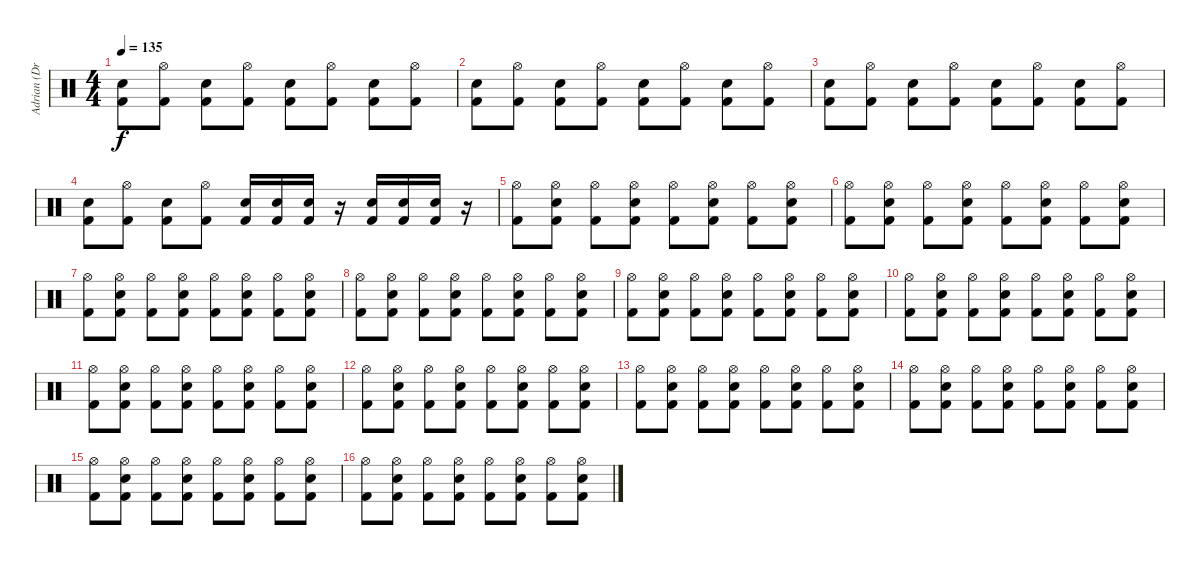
\track ("Adrian (Drums)" "Adrian (Dr") {instrument percussion}
\staff {score}
\articulation defaults
\ts (4 4)
\tempo 135
\clef neutral
\ks c
("Snare (hit) 2" "Kick (hit) 2").8{dy f} ("Hi-Hat (open)" "Kick (hit) 2").8 ("Snare (hit) 2" "Kick (hit) 2").8 ("Hi-Hat (open)" "Kick (hit) 2").8 ("Snare (hit) 2" "Kick (hit) 2").8 ("Hi-Hat (open)" "Kick (hit) 2").8 ("Snare (hit) 2" "Kick (hit) 2").8 ("Hi-Hat (open)" "Kick (hit) 2").8 |
("Snare (hit) 2" "Kick (hit) 2").8 ("Hi-Hat (open)" "Kick (hit) 2").8 ("Snare (hit) 2" "Kick (hit) 2").8 ("Hi-Hat (open)" "Kick (hit) 2").8 ("Snare (hit) 2" "Kick (hit) 2").8 ("Hi-Hat (open)" "Kick (hit) 2").8 ("Snare (hit) 2" "Kick (hit) 2").8 ("Hi-Hat (open)" "Kick (hit) 2").8 |
("Snare (hit) 2" "Kick (hit) 2").8 ("Hi-Hat (open)" "Kick (hit) 2").8 ("Snare (hit) 2" "Kick (hit) 2").8 ("Hi-Hat (open)" "Kick (hit) 2").8 ("Snare (hit) 2" "Kick (hit) 2").8 ("Hi-Hat (open)" "Kick (hit) 2").8 ("Snare (hit) 2" "Kick (hit) 2").8 ("Hi-Hat (open)" "Kick (hit) 2").8 |
("Snare (hit) 2" "Kick (hit) 2").8 ("Hi-Hat (open)" "Kick (hit) 2").8 ("Snare (hit) 2" "Kick (hit) 2").8 ("Hi-Hat (open)" "Kick (hit) 2").8 ("Kick (hit) 2" "Snare (hit) 2").16 ("Snare (hit) 2" "Kick (hit) 2").16 ("Kick (hit) 2" "Snare (hit) 2").16 r.16 ("Kick (hit) 2" "Snare (hit) 2").16 ("Snare (hit) 2" "Kick (hit) 2").16 ("Kick (hit) 2" "Snare (hit) 2").16 r.16 |
("Kick (hit) 2" "Hi-Hat (open)").8 ("Kick (hit) 2" "Hi-Hat (open)" "Snare (hit) 2").8 ("Kick (hit) 2" "Hi-Hat (open)").8 ("Kick (hit) 2" "Hi-Hat (open)" "Snare (hit) 2").8 ("Kick (hit) 2" "Hi-Hat (open)").8 ("Kick (hit) 2" "Hi-Hat (open)" "Snare (hit) 2").8 ("Kick (hit) 2" "Hi-Hat (open)").8 ("Kick (hit) 2" "Hi-Hat (open)" "Snare (hit) 2").8 |
("Kick (hit) 2" "Hi-Hat (open)").8 ("Kick (hit) 2" "Hi-Hat (open)" "Snare (hit) 2").8 ("Kick (hit) 2" "Hi-Hat (open)").8 ("Kick (hit) 2" "Hi-Hat (open)" "Snare (hit) 2").8 ("Kick (hit) 2" "Hi-Hat (open)").8 ("Kick (hit) 2" "Hi-Hat (open)" "Snare (hit) 2").8 ("Kick (hit) 2" "Hi-Hat (open)").8 ("Kick (hit) 2" "Hi-Hat (open)" "Snare (hit) 2").8 |
("Kick (hit) 2" "Hi-Hat (open)").8 ("Kick (hit) 2" "Hi-Hat (open)" "Snare (hit) 2").8 ("Kick (hit) 2" "Hi-Hat (open)").8 ("Kick (hit) 2" "Hi-Hat (open)" "Snare (hit) 2").8 ("Kick (hit) 2" "Hi-Hat (open)").8 ("Kick (hit) 2" "Hi-Hat (open)" "Snare (hit) 2").8 ("Kick (hit) 2" "Hi-Hat (open)").8 ("Kick (hit) 2" "Hi-Hat (open)" "Snare (hit) 2").8 |
("Kick (hit) 2" "Hi-Hat (open)").8 ("Kick (hit) 2" "Hi-Hat (open)" "Snare (hit) 2").8 ("Kick (hit) 2" "Hi-Hat (open)").8 ("Kick (hit) 2" "Hi-Hat (open)" "Snare (hit) 2").8 ("Kick (hit) 2" "Hi-Hat (open)").8 ("Kick (hit) 2" "Hi-Hat (open)" "Snare (hit) 2").8 ("Kick (hit) 2" "Hi-Hat (open)").8 ("Kick (hit) 2" "Hi-Hat (open)" "Snare (hit) 2").8 |
("Kick (hit) 2" "Hi-Hat (open)").8 ("Kick (hit) 2" "Hi-Hat (open)" "Snare (hit) 2").8 ("Kick (hit) 2" "Hi-Hat (open)").8 ("Kick (hit) 2" "Hi-Hat (open)" "Snare (hit) 2").8 ("Kick (hit) 2" "Hi-Hat (open)").8 ("Kick (hit) 2" "Hi-Hat (open)" "Snare (hit) 2").8 ("Kick (hit) 2" "Hi-Hat (open)").8 ("Kick (hit) 2" "Hi-Hat (open)" "Snare (hit) 2").8 |
("Kick (hit) 2" "Hi-Hat (open)").8 ("Kick (hit) 2" "Hi-Hat (open)" "Snare (hit) 2").8 ("Kick (hit) 2" "Hi-Hat (open)").8 ("Kick (hit) 2" "Hi-Hat (open)" "Snare (hit) 2").8 ("Kick (hit) 2" "Hi-Hat (open)").8 ("Kick (hit) 2" "Hi-Hat (open)" "Snare (hit) 2").8 ("Kick (hit) 2" "Hi-Hat (open)").8 ("Kick (hit) 2" "Hi-Hat (open)" "Snare (hit) 2").8 |
("Kick (hit) 2" "Hi-Hat (open)").8 ("Kick (hit) 2" "Hi-Hat (open)" "Snare (hit) 2").8 ("Kick (hit) 2" "Hi-Hat (open)").8 ("Kick (hit) 2" "Hi-Hat (open)" "Snare (hit) 2").8 ("Kick (hit) 2" "Hi-Hat (open)").8 ("Kick (hit) 2" "Hi-Hat (open)" "Snare (hit) 2").8 ("Kick (hit) 2" "Hi-Hat (open)").8 ("Kick (hit) 2" "Hi-Hat (open)" "Snare (hit) 2").8 |
("Kick (hit) 2" "Hi-Hat (open)").8 ("Kick (hit) 2" "Hi-Hat (open)" "Snare (hit) 2").8 ("Kick (hit) 2" "Hi-Hat (open)").8 ("Kick (hit) 2" "Hi-Hat (open)" "Snare (hit) 2").8 ("Kick (hit) 2" "Hi-Hat (open)").8 ("Kick (hit) 2" "Hi-Hat (open)" "Snare (hit) 2").8 ("Kick (hit) 2" "Hi-Hat (open)").8 ("Kick (hit) 2" "Hi-Hat (open)" "Snare (hit) 2").8 |
("Kick (hit) 2" "Hi-Hat (open)").8 ("Kick (hit) 2" "Hi-Hat (open)" "Snare (hit) 2").8 ("Kick (hit) 2" "Hi-Hat (open)").8 ("Kick (hit) 2" "Hi-Hat (open)" "Snare (hit) 2").8 ("Kick (hit) 2" "Hi-Hat (open)").8 ("Kick (hit) 2" "Hi-Hat (open)" "Snare (hit) 2").8 ("Kick (hit) 2" "Hi-Hat (open)").8 ("Kick (hit) 2" "Hi-Hat (open)" "Snare (hit) 2").8 |
("Kick (hit) 2" "Hi-Hat (open)").8 ("Kick (hit) 2" "Hi-Hat (open)" "Snare (hit) 2").8 ("Kick (hit) 2" "Hi-Hat (open)").8 ("Kick (hit) 2" "Hi-Hat (open)" "Snare (hit) 2").8 ("Kick (hit) 2" "Hi-Hat (open)").8 ("Kick (hit) 2" "Hi-Hat (open)" "Snare (hit) 2").8 ("Kick (hit) 2" "Hi-Hat (open)").8 ("Kick (hit) 2" "Hi-Hat (open)" "Snare (hit) 2").8 |
("Kick (hit) 2" "Hi-Hat (open)").8 ("Kick (hit) 2" "Hi-Hat (open)" "Snare (hit) 2").8 ("Kick (hit) 2" "Hi-Hat (open)").8 ("Kick (hit) 2" "Hi-Hat (open)" "Snare (hit) 2").8 ("Kick (hit) 2" "Hi-Hat (open)").8 ("Kick (hit) 2" "Hi-Hat (open)" "Snare (hit) 2").8 ("Kick (hit) 2" "Hi-Hat (open)").8 ("Kick (hit) 2" "Hi-Hat (open)" "Snare (hit) 2").8 |
("Kick (hit) 2" "Hi-Hat (open)").8 ("Kick (hit) 2" "Hi-Hat (open)" "Snare (hit) 2").8 ("Kick (hit) 2" "Hi-Hat (open)").8 ("Kick (hit) 2" "Hi-Hat (open)" "Snare (hit) 2").8 ("Kick (hit) 2" "Hi-Hat (open)").8 ("Kick (hit) 2" "Hi-Hat (open)" "Snare (hit) 2").8 ("Kick (hit) 2" "Hi-Hat (open)").8 ("Kick (hit) 2" "Hi-Hat (open)" "Snare (hit) 2").8
